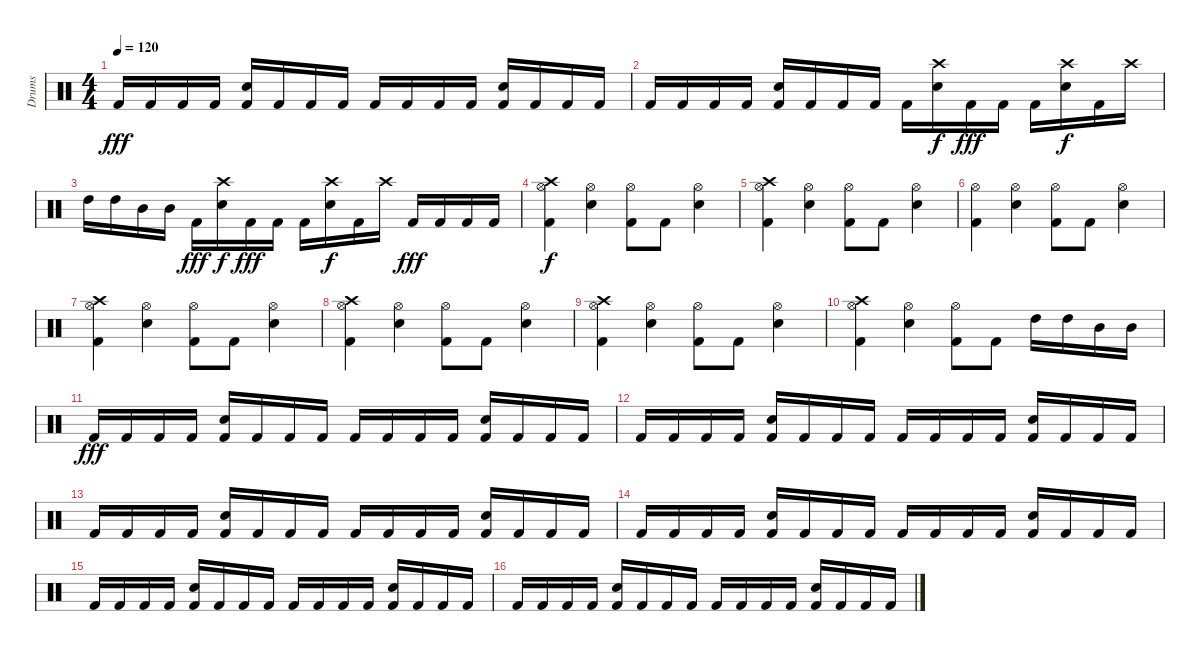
\track ("Drums" "Drums") {instrument percussion}
\staff {score}
\articulation defaults
\ts (4 4)
\tempo 120
\clef neutral
\ks c "Kick (hit) 2".16{dy fff} "Kick (hit) 2".16 "Kick (hit) 2".16 "Kick (hit) 2".16
("Snare (hit) 2" "Kick (hit) 2").16 "Kick (hit) 2".16 "Kick (hit) 2".16 "Kick (hit) 2".16 "Kick (hit) 2".16 "Kick (hit) 2".16 "Kick (hit) 2".16 "Kick (hit) 2".16 ("Snare (hit) 2" "Kick (hit) 2").16 "Kick (hit) 2".16 "Kick (hit) 2".16 "Kick (hit) 2".16 |
"Kick (hit) 2".16 "Kick (hit) 2".16 "Kick (hit) 2".16 "Kick (hit) 2".16 ("Snare (hit) 2" "Kick (hit) 2").16 "Kick (hit) 2".16 "Kick (hit) 2".16 "Kick (hit) 2".16 "Kick (hit) 2".16 ("Crash high (hit)" "Snare (hit) 2").16{dy f} "Kick (hit) 2".16{dy fff} "Kick (hit) 2".16 "Kick (hit) 2".16 ("Crash high (hit)" "Snare (hit) 2").16{dy f} "Kick (hit) 2".16 "Crash high (hit)".16 |
"High Tom (hit)".16 "High Tom (hit)".16 "Mid Tom (hit)".16 "Mid Tom (hit)".16 "Kick (hit) 2".16{dy fff} ("Crash high (hit)" "Snare (hit) 2").16{dy f} "Kick (hit) 2".16{dy fff} "Kick (hit) 2".16 "Kick (hit) 2".16 ("Crash high (hit)" "Snare (hit) 2").16{dy f} "Kick (hit) 2".16 "Crash high (hit)".16 "Kick (hit) 2".16{dy fff} "Kick (hit) 2".16 "Kick (hit) 2".16 "Kick (hit) 2".16 |
("Kick (hit) 2" "Hi-Hat (open)" "Crash high (hit)").4{dy f} ("Hi-Hat (open)" "Snare (hit) 2").4 ("Hi-Hat (open)" "Kick (hit) 2").8 "Kick (hit) 2".8 ("Hi-Hat (open)" "Snare (hit) 2").4 |
("Kick (hit) 2" "Hi-Hat (open)" "Crash high (hit)").4 ("Hi-Hat (open)" "Snare (hit) 2").4 ("Hi-Hat (open)" "Kick (hit) 2").8 "Kick (hit) 2".8 ("Hi-Hat (open)" "Snare (hit) 2").4 |
("Kick (hit) 2" "Hi-Hat (open)").4 ("Hi-Hat (open)" "Snare (hit) 2").4 ("Hi-Hat (open)" "Kick (hit) 2").8 "Kick (hit) 2".8 ("Hi-Hat (open)" "Snare (hit) 2").4 |
("Kick (hit) 2" "Hi-Hat (open)" "Crash high (hit)").4 ("Hi-Hat (open)" "Snare (hit) 2").4 ("Hi-Hat (open)" "Kick (hit) 2").8 "Kick (hit) 2".8 ("Hi-Hat (open)" "Snare (hit) 2").4 |
("Kick (hit) 2" "Hi-Hat (open)" "Crash high (hit)").4 ("Hi-Hat (open)" "Snare (hit) 2").4 ("Hi-Hat (open)" "Kick (hit) 2").8 "Kick (hit) 2".8 ("Hi-Hat (open)" "Snare (hit) 2").4 |
("Kick (hit) 2" "Hi-Hat (open)" "Crash high (hit)").4 ("Hi-Hat (open)" "Snare (hit) 2").4 ("Hi-Hat (open)" "Kick (hit) 2").8 "Kick (hit) 2".8 ("Hi-Hat (open)" "Snare (hit) 2").4 |
("Kick (hit) 2" "Hi-Hat (open)" "Crash high (hit)").4 ("Hi-Hat (open)" "Snare (hit) 2").4 ("Hi-Hat (open)" "Kick (hit) 2").8 "Kick (hit) 2".8 "High Tom (hit)".16 "High Tom (hit)".16 "Mid Tom (hit)".16 "Mid Tom (hit)".16 |
"Kick (hit) 2".16{dy fff} "Kick (hit) 2".16 "Kick (hit) 2".16 "Kick (hit) 2".16 ("Snare (hit) 2" "Kick (hit) 2").16 "Kick (hit) 2".16 "Kick (hit) 2".16 "Kick (hit) 2".16 "Kick (hit) 2".16 "Kick (hit) 2".16 "Kick (hit) 2".16 "Kick (hit) 2".16 ("Snare (hit) 2" "Kick (hit) 2").16 "Kick (hit) 2".16 "Kick (hit) 2".16 "Kick (hit) 2".16 |
"Kick (hit) 2".16 "Kick (hit) 2".16 "Kick (hit) 2".16 "Kick (hit) 2".16 ("Snare (hit) 2" "Kick (hit) 2").16 "Kick (hit) 2".16 "Kick (hit) 2".16 "Kick (hit) 2".16 "Kick (hit) 2".16 "Kick (hit) 2".16 "Kick (hit) 2".16 "Kick (hit) 2".16 ("Snare (hit) 2" "Kick (hit) 2").16 "Kick (hit) 2".16 "Kick (hit) 2".16 "Kick (hit) 2".16 |
"Kick (hit) 2".16 "Kick (hit) 2".16 "Kick (hit) 2".16 "Kick (hit) 2".16 ("Snare (hit) 2" "Kick (hit) 2").16 "Kick (hit) 2".16 "Kick (hit) 2".16 "Kick (hit) 2".16 "Kick (hit) 2".16 "Kick (hit) 2".16 "Kick (hit) 2".16 "Kick (hit) 2".16 ("Snare (hit) 2" "Kick (hit) 2").16 "Kick (hit) 2".16 "Kick (hit) 2".16 "Kick (hit) 2".16 |
"Kick (hit) 2".16 "Kick (hit) 2".16 "Kick (hit) 2".16 "Kick (hit) 2".16 ("Snare (hit) 2" "Kick (hit) 2").16 "Kick (hit) 2".16 "Kick (hit) 2".16 "Kick (hit) 2".16 "Kick (hit) 2".16 "Kick (hit) 2".16 "Kick (hit) 2".16 "Kick (hit) 2".16 ("Snare (hit) 2" "Kick (hit) 2").16 "Kick (hit) 2".16 "Kick (hit) 2".16 "Kick (hit) 2".16 |
"Kick (hit) 2".16 "Kick (hit) 2".16 "Kick (hit) 2".16 "Kick (hit) 2".16 ("Snare (hit) 2" "Kick (hit) 2").16 "Kick (hit) 2".16 "Kick (hit) 2".16 "Kick (hit) 2".16 "Kick (hit) 2".16 "Kick (hit) 2".16 "Kick (hit) 2".16 "Kick (hit) 2".16 ("Snare (hit) 2" "Kick (hit) 2").16 "Kick (hit) 2".16 "Kick (hit) 2".16 "Kick (hit) 2".16 |
"Kick (hit) 2".16 "Kick (hit) 2".16 "Kick (hit) 2".16 "Kick (hit) 2".16 ("Snare (hit) 2" "Kick (hit) 2").16 "Kick (hit) 2".16 "Kick (hit) 2".16 "Kick (hit) 2".16 "Kick (hit) 2".16 "Kick (hit) 2".16 "Kick (hit) 2".16 "Kick (hit) 2".16 ("Snare (hit) 2" "Kick (hit) 2").16 "Kick (hit) 2".16 "Kick (hit) 2".16 "Kick (hit) 2".16
